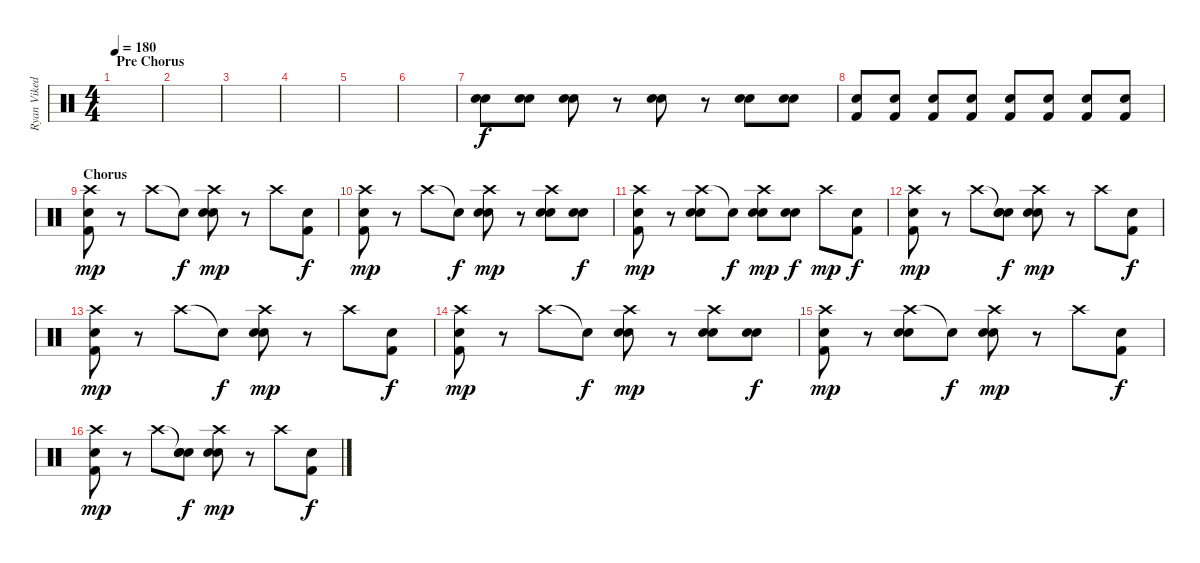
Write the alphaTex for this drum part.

\track ("Ryan Vikedal(drums)" "Ryan Viked") {instrument percussion}
\staff {score}
\articulation defaults
\ts (4 4)
\section ("" "Pre Chorus")
\tempo 180
\clef neutral
\ks c
|
|
|
|
|
|
("Snare (hit) 2" "Electric Snare (hit)").8 ("Snare (hit) 2" "Electric Snare (hit)").8 ("Electric Snare (hit)" "Electric Snare (hit)").8 r.8 ("Electric Snare (hit)" "Snare (hit) 2").8 r.8 ("Electric Snare (hit)" "Electric Snare (hit)").8 ("Electric Snare (hit)" "Electric Snare (hit)").8 |
("Kick (hit) 2" "Electric Snare (hit)").8 ("Kick (hit) 2" "Electric Snare (hit)").8 ("Kick (hit) 2" "Electric Snare (hit)").8 ("Kick (hit) 2" "Electric Snare (hit)").8 ("Kick (hit) 2" "Electric Snare (hit)").8 ("Kick (hit) 2" "Electric Snare (hit)").8 ("Kick (hit) 2" "Electric Snare (hit)").8 ("Kick (hit) 2" "Electric Snare (hit)").8 |
\section ("" "Chorus")
("Crash high (hit)" "Electric Snare (hit)" "Kick (hit) 2").8{dy mp} r.8 "Crash high (hit)".8 "Snare (hit)"{t}.8{dy f} ("Crash high (hit)" "Electric Snare (hit)" "Electric Snare (hit)").8{dy mp} r.8 "Crash high (hit)".8 ("Kick (hit) 2" "Electric Snare (hit)").8{dy f} |
("Crash high (hit)" "Electric Snare (hit)" "Kick (hit) 2").8{dy mp} r.8 "Crash high (hit)".8 "Snare (hit)"{t}.8{dy f} ("Crash high (hit)" "Electric Snare (hit)" "Electric Snare (hit)").8{dy mp} r.8 ("Crash high (hit)" "Electric Snare (hit)" "Electric Snare (hit)").8 ("Electric Snare (hit)" "Electric Snare (hit)").8{dy f} |
("Crash high (hit)" "Electric Snare (hit)" "Kick (hit) 2").8{dy mp} r.8 ("Crash high (hit)" "Electric Snare (hit)" "Electric Snare (hit)").8 "Snare (hit)"{t}.8{dy f} ("Crash high (hit)" "Electric Snare (hit)" "Electric Snare (hit)").8{dy mp} ("Electric Snare (hit)" "Electric Snare (hit)").8{dy f} "Crash high (hit)".8{dy mp} ("Kick (hit) 2" "Electric Snare (hit)").8{dy f} |
("Crash high (hit)" "Electric Snare (hit)" "Kick (hit) 2").8{dy mp} r.8 "Crash high (hit)".8 ("Snare (hit)"{t} "Electric Snare (hit)" "Electric Snare (hit)").8{dy f} ("Crash high (hit)" "Electric Snare (hit)" "Electric Snare (hit)").8{dy mp} r.8 "Crash high (hit)".8 ("Kick (hit) 2" "Electric Snare (hit)").8{dy f} |
("Crash high (hit)" "Electric Snare (hit)" "Kick (hit) 2").8{dy mp} r.8 "Crash high (hit)".8 "Snare (hit)"{t}.8{dy f} ("Crash high (hit)" "Electric Snare (hit)" "Electric Snare (hit)").8{dy mp} r.8 "Crash high (hit)".8 ("Kick (hit) 2" "Electric Snare (hit)").8{dy f} |
("Crash high (hit)" "Electric Snare (hit)" "Kick (hit) 2").8{dy mp} r.8 "Crash high (hit)".8 "Snare (hit)"{t}.8{dy f} ("Crash high (hit)" "Electric Snare (hit)" "Electric Snare (hit)").8{dy mp} r.8 ("Crash high (hit)" "Electric Snare (hit)" "Electric Snare (hit)").8 ("Electric Snare (hit)" "Electric Snare (hit)").8{dy f} |
("Crash high (hit)" "Electric Snare (hit)" "Kick (hit) 2").8{dy mp} r.8 ("Crash high (hit)" "Electric Snare (hit)" "Electric Snare (hit)").8 "Snare (hit)"{t}.8{dy f} ("Crash high (hit)" "Electric Snare (hit)" "Electric Snare (hit)").8{dy mp} r.8 "Crash high (hit)".8 ("Kick (hit) 2" "Electric Snare (hit)").8{dy f} |
("Crash high (hit)" "Electric Snare (hit)" "Kick (hit) 2").8{dy mp} r.8 "Crash high (hit)".8 ("Snare (hit)"{t} "Electric Snare (hit)" "Electric Snare (hit)").8{dy f} ("Crash high (hit)" "Electric Snare (hit)" "Electric Snare (hit)").8{dy mp} r.8 "Crash high (hit)".8 ("Kick (hit) 2" "Electric Snare (hit)").8{dy f}
